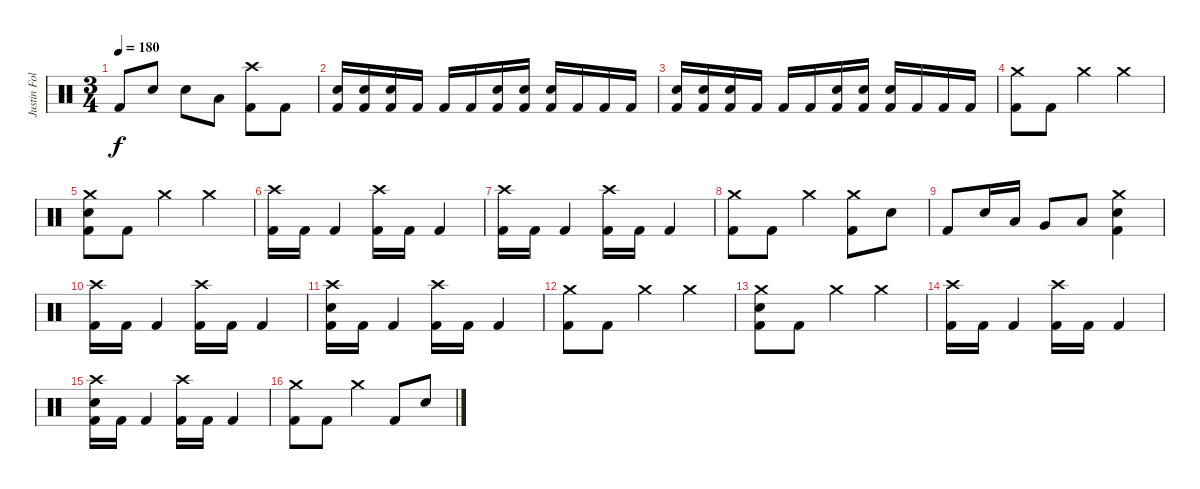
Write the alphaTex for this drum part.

\track ("Justin Foley" "Justin Fol") {instrument percussion}
\staff {score}
\articulation defaults
\ts (3 4)
\tempo 180
\clef neutral
\ks c "Kick (hit) 2".8{dy f} "Electric Snare (hit)".8 "Electric Snare (hit)".8 "Low Tom (hit)".8
("Crash high (hit)" "Kick (hit) 2").8 "Kick (hit) 2".8 |
("Electric Snare (hit)" "Kick (hit) 2").16 ("Electric Snare (hit)" "Kick (hit) 2").16 ("Electric Snare (hit)" "Kick (hit) 2").16 "Kick (hit) 2".16 "Kick (hit) 2".16 "Kick (hit) 2".16 ("Electric Snare (hit)" "Kick (hit) 2").16 ("Electric Snare (hit)" "Kick (hit) 2").16 ("Electric Snare (hit)" "Kick (hit) 2").16 "Kick (hit) 2".16 "Kick (hit) 2".16 "Kick (hit) 2".16 |
("Electric Snare (hit)" "Kick (hit) 2").16 ("Electric Snare (hit)" "Kick (hit) 2").16 ("Electric Snare (hit)" "Kick (hit) 2").16 "Kick (hit) 2".16 "Kick (hit) 2".16 "Kick (hit) 2".16 ("Electric Snare (hit)" "Kick (hit) 2").16 ("Electric Snare (hit)" "Kick (hit) 2").16 ("Electric Snare (hit)" "Kick (hit) 2").16 "Kick (hit) 2".16 "Kick (hit) 2".16 "Kick (hit) 2".16 |
("Crash medium (hit)" "Kick (hit) 2").8 "Kick (hit) 2".8 "Crash medium (hit)".4 "Crash medium (hit)".4 |
("Crash medium (hit)" "Electric Snare (hit)" "Kick (hit) 2").8 "Kick (hit) 2".8 "Crash medium (hit)".4 "Crash medium (hit)".4 |
("Crash high (hit)" "Kick (hit) 2").16 "Kick (hit) 2".16 "Kick (hit) 2".4 ("Crash high (hit)" "Kick (hit) 2").16 "Kick (hit) 2".16 "Kick (hit) 2".4 |
("Crash high (hit)" "Kick (hit) 2").16 "Kick (hit) 2".16 "Kick (hit) 2".4 ("Crash high (hit)" "Kick (hit) 2").16 "Kick (hit) 2".16 "Kick (hit) 2".4 |
("Crash medium (hit)" "Kick (hit) 2").8 "Kick (hit) 2".8 "Crash medium (hit)".4 ("Crash medium (hit)" "Kick (hit) 2").8 "Electric Snare (hit)".8 |
"Kick (hit) 2".8 "Electric Snare (hit)".16 "Low Tom (hit)".16 "Very Low Tom (hit)".8 "Low Floor Tom (hit)".8 ("Crash medium (hit)" "Electric Snare (hit)" "Kick (hit) 2").4 |
("Crash high (hit)" "Kick (hit) 2").16 "Kick (hit) 2".16 "Kick (hit) 2".4 ("Crash high (hit)" "Kick (hit) 2").16 "Kick (hit) 2".16 "Kick (hit) 2".4 |
("Crash high (hit)" "Electric Snare (hit)" "Kick (hit) 2").16 "Kick (hit) 2".16 "Kick (hit) 2".4 ("Crash high (hit)" "Kick (hit) 2").16 "Kick (hit) 2".16 "Kick (hit) 2".4 |
("Crash medium (hit)" "Kick (hit) 2").8 "Kick (hit) 2".8 "Crash medium (hit)".4 "Crash medium (hit)".4 |
("Crash medium (hit)" "Electric Snare (hit)" "Kick (hit) 2").8 "Kick (hit) 2".8 "Crash medium (hit)".4 "Crash medium (hit)".4 |
("Crash high (hit)" "Kick (hit) 2").16 "Kick (hit) 2".16 "Kick (hit) 2".4 ("Crash high (hit)" "Kick (hit) 2").16 "Kick (hit) 2".16 "Kick (hit) 2".4 |
("Crash high (hit)" "Electric Snare (hit)" "Kick (hit) 2").16 "Kick (hit) 2".16 "Kick (hit) 2".4 ("Crash high (hit)" "Kick (hit) 2").16 "Kick (hit) 2".16 "Kick (hit) 2".4 |
("Crash medium (hit)" "Kick (hit) 2").8 "Kick (hit) 2".8 "Crash medium (hit)".4 "Kick (hit) 2".8 "Electric Snare (hit)".8
